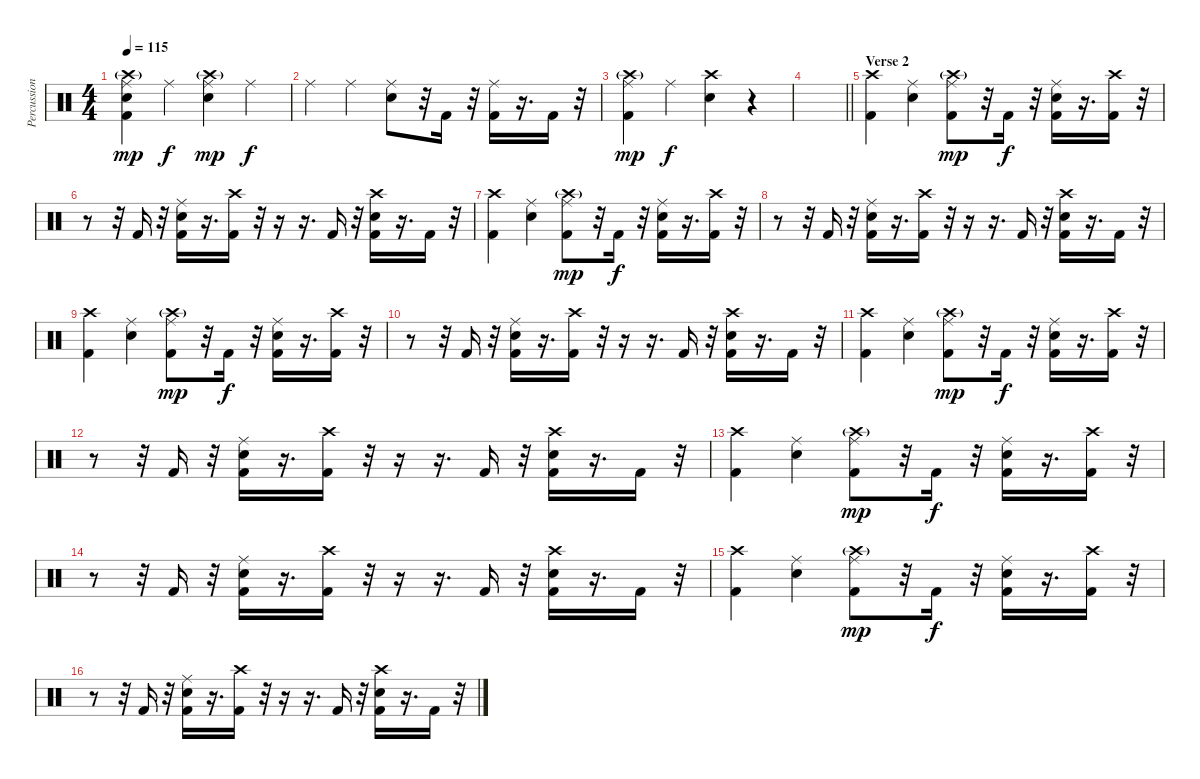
\track ("Percussion" "Percussion") {instrument percussion}
\staff {score}
\articulation defaults
\ts (4 4)
\tempo 115
\clef neutral
\ks c
("Ride (middle)" "Crash high (hit)"{g} "Electric Snare (hit)" "Kick (hit) 2").4{dy mp} "Ride (middle)".4{dy f} ("Crash high (hit)"{g} "Ride (middle)" "Electric Snare (hit)").4{dy mp} "Ride (middle)".4{dy f} |
"Ride (middle)".4 "Ride (middle)".4 ("Ride (middle)" "Electric Snare (hit)").8 r.32 "Kick (hit) 2".16 r.32 ("Ride (middle)" "Kick (hit) 2").16 r.16{d} "Kick (hit) 2".16 r.32 |
("Ride (middle)" "Crash high (hit)"{g} "Kick (hit) 2").4{dy mp} "Ride (middle)".4{dy f} ("Crash high (hit)" "Electric Snare (hit)").4 r.4 |
\barLineRight lightlight
|
\section ("" "Verse 2")
("Crash high (hit)" "Kick (hit) 2").4 ("Ride (middle)" "Electric Snare (hit)").4 ("Crash high (hit)"{g} "Ride (middle)" "Kick (hit) 2").8{dy mp} r.32 "Kick (hit) 2".16{dy f} r.32 ("Ride (middle)" "Electric Snare (hit)" "Kick (hit) 2").16 r.16{d} ("Crash high (hit)" "Kick (hit) 2").16 r.32 |
r.8 r.32 "Kick (hit) 2".16 r.32 ("Ride (middle)" "Electric Snare (hit)" "Kick (hit) 2").16 r.16{d} ("Crash high (hit)" "Kick (hit) 2").16 r.32 r.16 r.16{d} "Kick (hit) 2".16 r.32 ("Crash high (hit)" "Electric Snare (hit)" "Kick (hit) 2").16 r.16{d} "Kick (hit) 2".16 r.32 |
("Crash high (hit)" "Kick (hit) 2").4 ("Ride (middle)" "Electric Snare (hit)").4 ("Crash high (hit)"{g} "Ride (middle)" "Kick (hit) 2").8{dy mp} r.32 "Kick (hit) 2".16{dy f} r.32 ("Ride (middle)" "Electric Snare (hit)" "Kick (hit) 2").16 r.16{d} ("Crash high (hit)" "Kick (hit) 2").16 r.32 |
r.8 r.32 "Kick (hit) 2".16 r.32 ("Ride (middle)" "Electric Snare (hit)" "Kick (hit) 2").16 r.16{d} ("Crash high (hit)" "Kick (hit) 2").16 r.32 r.16 r.16{d} "Kick (hit) 2".16 r.32 ("Crash high (hit)" "Electric Snare (hit)" "Kick (hit) 2").16 r.16{d} "Kick (hit) 2".16 r.32 |
("Crash high (hit)" "Kick (hit) 2").4 ("Ride (middle)" "Electric Snare (hit)").4 ("Crash high (hit)"{g} "Ride (middle)" "Kick (hit) 2").8{dy mp} r.32 "Kick (hit) 2".16{dy f} r.32 ("Ride (middle)" "Electric Snare (hit)" "Kick (hit) 2").16 r.16{d} ("Crash high (hit)" "Kick (hit) 2").16 r.32 |
r.8 r.32 "Kick (hit) 2".16 r.32 ("Ride (middle)" "Electric Snare (hit)" "Kick (hit) 2").16 r.16{d} ("Crash high (hit)" "Kick (hit) 2").16 r.32 r.16 r.16{d} "Kick (hit) 2".16 r.32 ("Crash high (hit)" "Electric Snare (hit)" "Kick (hit) 2").16 r.16{d} "Kick (hit) 2".16 r.32 |
("Crash high (hit)" "Kick (hit) 2").4 ("Ride (middle)" "Electric Snare (hit)").4 ("Crash high (hit)"{g} "Ride (middle)" "Kick (hit) 2").8{dy mp} r.32 "Kick (hit) 2".16{dy f} r.32 ("Ride (middle)" "Electric Snare (hit)" "Kick (hit) 2").16 r.16{d} ("Crash high (hit)" "Kick (hit) 2").16 r.32 |
r.8 r.32 "Kick (hit) 2".16 r.32 ("Ride (middle)" "Electric Snare (hit)" "Kick (hit) 2").16 r.16{d} ("Crash high (hit)" "Kick (hit) 2").16 r.32 r.16 r.16{d} "Kick (hit) 2".16 r.32 ("Crash high (hit)" "Electric Snare (hit)" "Kick (hit) 2").16 r.16{d} "Kick (hit) 2".16 r.32 |
("Crash high (hit)" "Kick (hit) 2").4 ("Ride (middle)" "Electric Snare (hit)").4 ("Crash high (hit)"{g} "Ride (middle)" "Kick (hit) 2").8{dy mp} r.32 "Kick (hit) 2".16{dy f} r.32 ("Ride (middle)" "Electric Snare (hit)" "Kick (hit) 2").16 r.16{d} ("Crash high (hit)" "Kick (hit) 2").16 r.32 |
r.8 r.32 "Kick (hit) 2".16 r.32 ("Ride (middle)" "Electric Snare (hit)" "Kick (hit) 2").16 r.16{d} ("Crash high (hit)" "Kick (hit) 2").16 r.32 r.16 r.16{d} "Kick (hit) 2".16 r.32 ("Crash high (hit)" "Electric Snare (hit)" "Kick (hit) 2").16 r.16{d} "Kick (hit) 2".16 r.32 |
("Crash high (hit)" "Kick (hit) 2").4 ("Ride (middle)" "Electric Snare (hit)").4 ("Crash high (hit)"{g} "Ride (middle)" "Kick (hit) 2").8{dy mp} r.32 "Kick (hit) 2".16{dy f} r.32 ("Ride (middle)" "Electric Snare (hit)" "Kick (hit) 2").16 r.16{d} ("Crash high (hit)" "Kick (hit) 2").16 r.32 |
r.8 r.32 "Kick (hit) 2".16 r.32 ("Ride (middle)" "Electric Snare (hit)" "Kick (hit) 2").16 r.16{d} ("Crash high (hit)" "Kick (hit) 2").16 r.32 r.16 r.16{d} "Kick (hit) 2".16 r.32 ("Crash high (hit)" "Electric Snare (hit)" "Kick (hit) 2").16 r.16{d} "Kick (hit) 2".16 r.32
